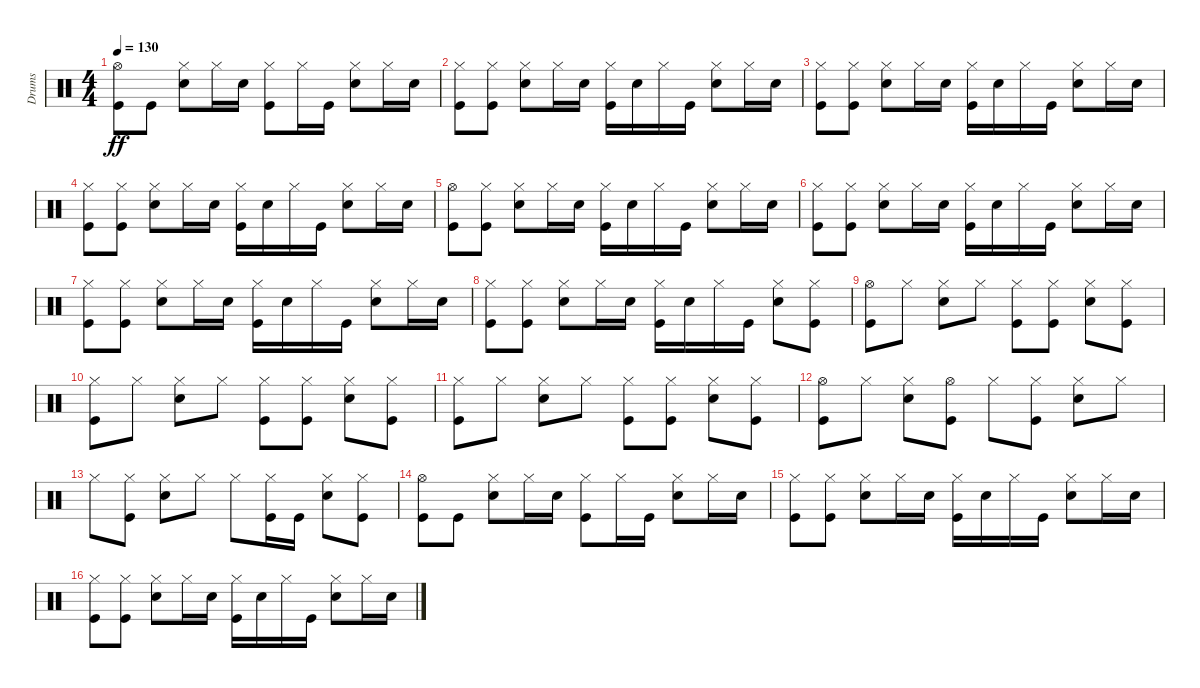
\track ("Drums" "Drums") {instrument percussion}
\staff {score}
\articulation defaults
\ts (4 4)
\tempo 130
\clef neutral
\ks c
("Kick (hit)" "Hi-Hat (open)").8{dy ff} "Kick (hit)".8 ("Snare (hit) 2" "Hi-Hat (closed)").8 "Hi-Hat (closed)".16 "Snare (hit) 2".16 ("Kick (hit)" "Hi-Hat (closed)").8 "Hi-Hat (closed)".16 "Kick (hit)".16 ("Snare (hit) 2" "Hi-Hat (closed)").8 "Hi-Hat (closed)".16 "Snare (hit) 2".16 |
("Kick (hit)" "Hi-Hat (closed)").8 ("Kick (hit)" "Hi-Hat (closed)").8 ("Snare (hit) 2" "Hi-Hat (closed)").8 "Hi-Hat (closed)".16 "Snare (hit) 2".16 ("Kick (hit)" "Hi-Hat (closed)").16 "Snare (hit) 2".16 "Hi-Hat (closed)".16 "Kick (hit)".16 ("Snare (hit) 2" "Hi-Hat (closed)").8 "Hi-Hat (closed)".16 "Snare (hit) 2".16 |
("Kick (hit)" "Hi-Hat (closed)").8 ("Kick (hit)" "Hi-Hat (closed)").8 ("Snare (hit) 2" "Hi-Hat (closed)").8 "Hi-Hat (closed)".16 "Snare (hit) 2".16 ("Kick (hit)" "Hi-Hat (closed)").16 "Snare (hit) 2".16 "Hi-Hat (closed)".16 "Kick (hit)".16 ("Snare (hit) 2" "Hi-Hat (closed)").8 "Hi-Hat (closed)".16 "Snare (hit) 2".16 |
("Kick (hit)" "Hi-Hat (closed)").8 ("Kick (hit)" "Hi-Hat (closed)").8 ("Snare (hit) 2" "Hi-Hat (closed)").8 "Hi-Hat (closed)".16 "Snare (hit) 2".16 ("Kick (hit)" "Hi-Hat (closed)").16 "Snare (hit) 2".16 "Hi-Hat (closed)".16 "Kick (hit)".16 ("Snare (hit) 2" "Hi-Hat (closed)").8 "Hi-Hat (closed)".16 "Snare (hit) 2".16 |
("Kick (hit)" "Hi-Hat (open)").8 ("Kick (hit)" "Hi-Hat (closed)").8 ("Snare (hit) 2" "Hi-Hat (closed)").8 "Hi-Hat (closed)".16 "Snare (hit) 2".16 ("Kick (hit)" "Hi-Hat (closed)").16 "Snare (hit) 2".16 "Hi-Hat (closed)".16 "Kick (hit)".16 ("Snare (hit) 2" "Hi-Hat (closed)").8 "Hi-Hat (closed)".16 "Snare (hit) 2".16 |
("Kick (hit)" "Hi-Hat (closed)").8 ("Kick (hit)" "Hi-Hat (closed)").8 ("Snare (hit) 2" "Hi-Hat (closed)").8 "Hi-Hat (closed)".16 "Snare (hit) 2".16 ("Kick (hit)" "Hi-Hat (closed)").16 "Snare (hit) 2".16 "Hi-Hat (closed)".16 "Kick (hit)".16 ("Snare (hit) 2" "Hi-Hat (closed)").8 "Hi-Hat (closed)".16 "Snare (hit) 2".16 |
("Kick (hit)" "Hi-Hat (closed)").8 ("Kick (hit)" "Hi-Hat (closed)").8 ("Snare (hit) 2" "Hi-Hat (closed)").8 "Hi-Hat (closed)".16 "Snare (hit) 2".16 ("Kick (hit)" "Hi-Hat (closed)").16 "Snare (hit) 2".16 "Hi-Hat (closed)".16 "Kick (hit)".16 ("Snare (hit) 2" "Hi-Hat (closed)").8 "Hi-Hat (closed)".16 "Snare (hit) 2".16 |
("Kick (hit)" "Hi-Hat (closed)").8 ("Kick (hit)" "Hi-Hat (closed)").8 ("Snare (hit) 2" "Hi-Hat (closed)").8 "Hi-Hat (closed)".16 "Snare (hit) 2".16 ("Kick (hit)" "Hi-Hat (closed)").16 "Snare (hit) 2".16 "Hi-Hat (closed)".16 "Kick (hit)".16 ("Snare (hit) 2" "Hi-Hat (closed)").8 ("Kick (hit)" "Hi-Hat (closed)").8 |
("Kick (hit)" "Hi-Hat (open)").8 "Hi-Hat (closed)".8 ("Snare (hit) 2" "Hi-Hat (closed)").8 "Hi-Hat (closed)".8 ("Kick (hit)" "Hi-Hat (closed)").8 ("Kick (hit)" "Hi-Hat (closed)").8 ("Snare (hit) 2" "Hi-Hat (closed)").8 ("Kick (hit)" "Hi-Hat (closed)").8 |
("Kick (hit)" "Hi-Hat (closed)").8 "Hi-Hat (closed)".8 ("Snare (hit) 2" "Hi-Hat (closed)").8 "Hi-Hat (closed)".8 ("Kick (hit)" "Hi-Hat (closed)").8 ("Kick (hit)" "Hi-Hat (closed)").8 ("Snare (hit) 2" "Hi-Hat (closed)").8 ("Kick (hit)" "Hi-Hat (closed)").8 |
("Kick (hit)" "Hi-Hat (closed)").8 "Hi-Hat (closed)".8 ("Snare (hit) 2" "Hi-Hat (closed)").8 "Hi-Hat (closed)".8 ("Kick (hit)" "Hi-Hat (closed)").8 ("Kick (hit)" "Hi-Hat (closed)").8 ("Snare (hit) 2" "Hi-Hat (closed)").8 ("Kick (hit)" "Hi-Hat (closed)").8 |
("Kick (hit)" "Hi-Hat (open)").8 "Hi-Hat (closed)".8 ("Snare (hit) 2" "Hi-Hat (closed)").8 ("Kick (hit)" "Hi-Hat (open)").8 "Hi-Hat (closed)".8 ("Kick (hit)" "Hi-Hat (closed)").8 ("Snare (hit) 2" "Hi-Hat (closed)").8 "Hi-Hat (closed)".8 |
"Hi-Hat (closed)".8 ("Kick (hit)" "Hi-Hat (closed)").8 ("Snare (hit) 2" "Hi-Hat (closed)").8 "Hi-Hat (closed)".8 "Hi-Hat (closed)".8 ("Kick (hit)" "Hi-Hat (closed)").16 "Kick (hit)".16 ("Snare (hit) 2" "Hi-Hat (closed)").8 ("Kick (hit)" "Hi-Hat (closed)").8 |
("Kick (hit)" "Hi-Hat (open)").8 "Kick (hit)".8 ("Snare (hit) 2" "Hi-Hat (closed)").8 "Hi-Hat (closed)".16 "Snare (hit) 2".16 ("Kick (hit)" "Hi-Hat (closed)").8 "Hi-Hat (closed)".16 "Kick (hit)".16 ("Snare (hit) 2" "Hi-Hat (closed)").8 "Hi-Hat (closed)".16 "Snare (hit) 2".16 |
("Kick (hit)" "Hi-Hat (closed)").8 ("Kick (hit)" "Hi-Hat (closed)").8 ("Snare (hit) 2" "Hi-Hat (closed)").8 "Hi-Hat (closed)".16 "Snare (hit) 2".16 ("Kick (hit)" "Hi-Hat (closed)").16 "Snare (hit) 2".16 "Hi-Hat (closed)".16 "Kick (hit)".16 ("Snare (hit) 2" "Hi-Hat (closed)").8 "Hi-Hat (closed)".16 "Snare (hit) 2".16 |
("Kick (hit)" "Hi-Hat (closed)").8 ("Kick (hit)" "Hi-Hat (closed)").8 ("Snare (hit) 2" "Hi-Hat (closed)").8 "Hi-Hat (closed)".16 "Snare (hit) 2".16 ("Kick (hit)" "Hi-Hat (closed)").16 "Snare (hit) 2".16 "Hi-Hat (closed)".16 "Kick (hit)".16 ("Snare (hit) 2" "Hi-Hat (closed)").8 "Hi-Hat (closed)".16 "Snare (hit) 2".16
